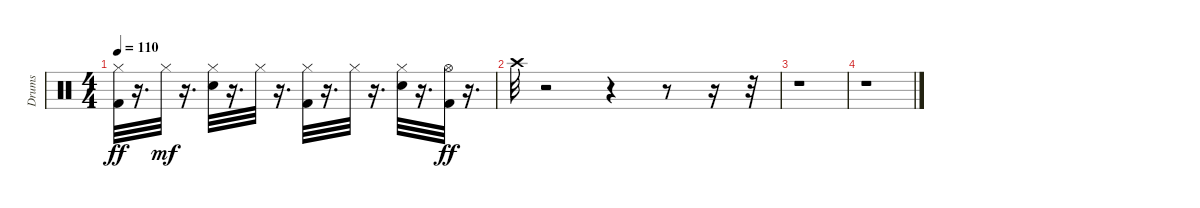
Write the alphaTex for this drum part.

\track ("Drums" "Drums") {instrument percussion}
\staff {score}
\articulation defaults
\ts (4 4)
\tempo 110
\clef neutral
\ks c
("Hi-Hat (closed)" "Kick (hit) 2").32{dy ff} r.16{d} "Hi-Hat (closed)".32{dy mf} r.16{d} ("Hi-Hat (closed)" "Snare (hit) 2").32 r.16{d} "Hi-Hat (closed)".32 r.16{d} ("Kick (hit) 2" "Hi-Hat (closed)").32 r.16{d} "Hi-Hat (closed)".32 r.16{d} ("Snare (hit) 2" "Hi-Hat (closed)").32 r.16{d} ("Hi-Hat (open)" "Kick (hit) 2").32{dy ff} r.16{d} |
"Crash high (hit)".32 r.2 r.4 r.8 r.16 r.32 |
r.1 |
r.1
